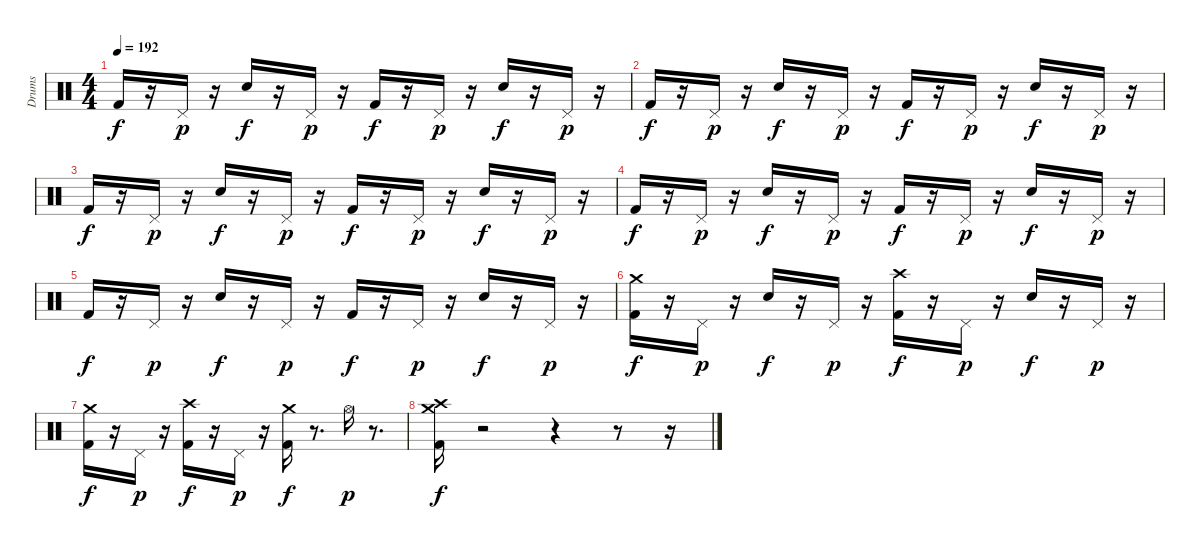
\track ("Drums" "Drums") {instrument percussion}
\staff {score}
\articulation defaults
\ts (4 4)
\tempo 192
\clef neutral
\ks c "Kick (hit) 2".16{dy f}
r.16 "Pedal Hi-Hat (hit)".16{dy p} r.16 "Electric Snare (hit)".16{dy f} r.16 "Pedal Hi-Hat (hit)".16{dy p} r.16 "Kick (hit) 2".16{dy f} r.16 "Pedal Hi-Hat (hit)".16{dy p} r.16 "Electric Snare (hit)".16{dy f} r.16 "Pedal Hi-Hat (hit)".16{dy p} r.16 |
"Kick (hit) 2".16{dy f} r.16 "Pedal Hi-Hat (hit)".16{dy p} r.16 "Electric Snare (hit)".16{dy f} r.16 "Pedal Hi-Hat (hit)".16{dy p} r.16 "Kick (hit) 2".16{dy f} r.16 "Pedal Hi-Hat (hit)".16{dy p} r.16 "Electric Snare (hit)".16{dy f} r.16 "Pedal Hi-Hat (hit)".16{dy p} r.16 |
"Kick (hit) 2".16{dy f} r.16 "Pedal Hi-Hat (hit)".16{dy p} r.16 "Electric Snare (hit)".16{dy f} r.16 "Pedal Hi-Hat (hit)".16{dy p} r.16 "Kick (hit) 2".16{dy f} r.16 "Pedal Hi-Hat (hit)".16{dy p} r.16 "Electric Snare (hit)".16{dy f} r.16 "Pedal Hi-Hat (hit)".16{dy p} r.16 |
"Kick (hit) 2".16{dy f} r.16 "Pedal Hi-Hat (hit)".16{dy p} r.16 "Electric Snare (hit)".16{dy f} r.16 "Pedal Hi-Hat (hit)".16{dy p} r.16 "Kick (hit) 2".16{dy f} r.16 "Pedal Hi-Hat (hit)".16{dy p} r.16 "Electric Snare (hit)".16{dy f} r.16 "Pedal Hi-Hat (hit)".16{dy p} r.16 |
"Kick (hit) 2".16{dy f} r.16 "Pedal Hi-Hat (hit)".16{dy p} r.16 "Electric Snare (hit)".16{dy f} r.16 "Pedal Hi-Hat (hit)".16{dy p} r.16 "Kick (hit) 2".16{dy f} r.16 "Pedal Hi-Hat (hit)".16{dy p} r.16 "Electric Snare (hit)".16{dy f} r.16 "Pedal Hi-Hat (hit)".16{dy p} r.16 |
("Crash medium (hit)" "Kick (hit) 2").16{dy f} r.16 "Pedal Hi-Hat (hit)".16{dy p} r.16 "Electric Snare (hit)".16{dy f} r.16 "Pedal Hi-Hat (hit)".16{dy p} r.16 ("Crash high (hit)" "Kick (hit) 2").16{dy f} r.16 "Pedal Hi-Hat (hit)".16{dy p} r.16 "Electric Snare (hit)".16{dy f} r.16 "Pedal Hi-Hat (hit)".16{dy p} r.16 |
("Crash medium (hit)" "Kick (hit) 2").16{dy f} r.16 "Pedal Hi-Hat (hit)".16{dy p} r.16 ("Crash high (hit)" "Kick (hit) 2").16{dy f} r.16 "Pedal Hi-Hat (hit)".16{dy p} r.16 ("Crash medium (hit)" "Kick (hit) 2").16{dy f} r.8{d} "Hi-Hat (open)".16{dy p} r.8{d} |
("Crash medium (hit)" "Crash high (hit)" "Kick (hit) 2").16{dy f} r.2 r.4 r.8 r.16
